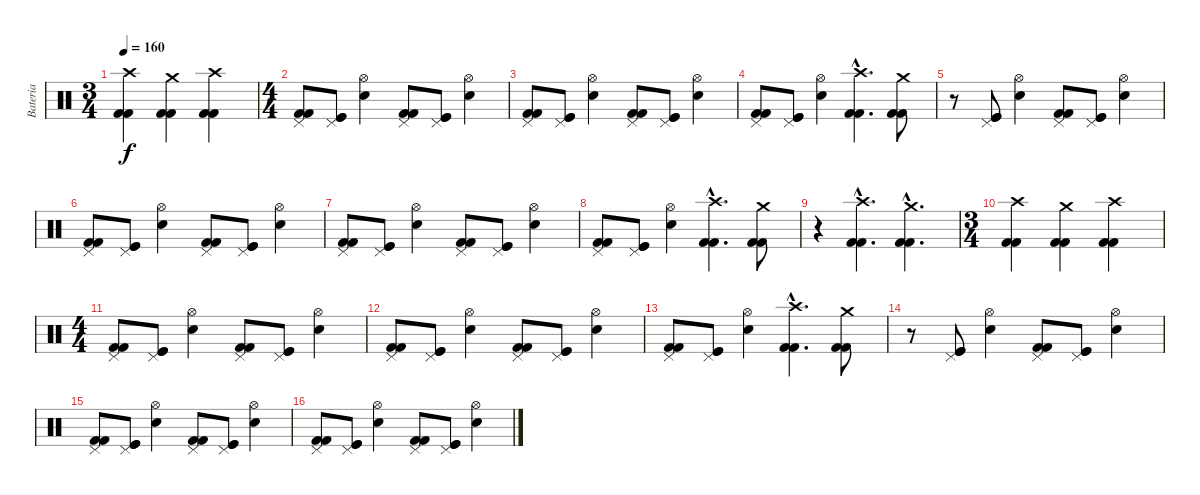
\track ("Bateria" "Bateria") {instrument percussion}
\staff {score}
\articulation defaults
\ts (3 4)
\tempo 160
\clef neutral
\ks c
("Kick (hit) 2" "Kick (hit) 2" "Crash high (hit)").4{dy f} ("Kick (hit) 2" "Kick (hit) 2" "Crash medium (hit)").4 ("Kick (hit) 2" "Kick (hit) 2" "Crash high (hit)").4 |
\ts (4 4)
("Kick (hit) 2" "Kick (hit) 2" "Pedal Hi-Hat (hit)").8 ("Kick (hit)" "Kick (hit)" "Pedal Hi-Hat (hit)").8 ("Snare (hit) 2" "Hi-Hat (open)").4 ("Kick (hit) 2" "Kick (hit) 2" "Pedal Hi-Hat (hit)").8 ("Kick (hit)" "Kick (hit)" "Pedal Hi-Hat (hit)").8 ("Snare (hit) 2" "Hi-Hat (open)").4 |
("Kick (hit) 2" "Kick (hit) 2" "Pedal Hi-Hat (hit)").8 ("Kick (hit)" "Kick (hit)" "Pedal Hi-Hat (hit)").8 ("Snare (hit) 2" "Hi-Hat (open)").4 ("Kick (hit) 2" "Kick (hit) 2" "Pedal Hi-Hat (hit)").8 ("Kick (hit)" "Kick (hit)" "Pedal Hi-Hat (hit)").8 ("Snare (hit) 2" "Hi-Hat (open)").4 |
("Kick (hit) 2" "Kick (hit) 2" "Pedal Hi-Hat (hit)").8 ("Kick (hit)" "Kick (hit)" "Pedal Hi-Hat (hit)").8 ("Snare (hit) 2" "Hi-Hat (open)").4 ("Kick (hit) 2"{hac} "Kick (hit) 2"{hac} "Crash high (hit)"{hac}).4{d} ("Kick (hit) 2" "Kick (hit) 2" "Crash medium (hit)").8 |
r.8 ("Kick (hit)" "Kick (hit)" "Pedal Hi-Hat (hit)").8 ("Snare (hit) 2" "Hi-Hat (open)").4 ("Kick (hit) 2" "Kick (hit) 2" "Pedal Hi-Hat (hit)").8 ("Kick (hit)" "Kick (hit)" "Pedal Hi-Hat (hit)").8 ("Snare (hit) 2" "Hi-Hat (open)").4 |
("Kick (hit) 2" "Kick (hit) 2" "Pedal Hi-Hat (hit)").8 ("Kick (hit)" "Kick (hit)" "Pedal Hi-Hat (hit)").8 ("Snare (hit) 2" "Hi-Hat (open)").4 ("Kick (hit) 2" "Kick (hit) 2" "Pedal Hi-Hat (hit)").8 ("Kick (hit)" "Kick (hit)" "Pedal Hi-Hat (hit)").8 ("Snare (hit) 2" "Hi-Hat (open)").4 |
("Kick (hit) 2" "Kick (hit) 2" "Pedal Hi-Hat (hit)").8 ("Kick (hit)" "Kick (hit)" "Pedal Hi-Hat (hit)").8 ("Snare (hit) 2" "Hi-Hat (open)").4 ("Kick (hit) 2" "Kick (hit) 2" "Pedal Hi-Hat (hit)").8 ("Kick (hit)" "Kick (hit)" "Pedal Hi-Hat (hit)").8 ("Snare (hit) 2" "Hi-Hat (open)").4 |
("Kick (hit) 2" "Kick (hit) 2" "Pedal Hi-Hat (hit)").8 ("Kick (hit)" "Kick (hit)" "Pedal Hi-Hat (hit)").8 ("Snare (hit) 2" "Hi-Hat (open)").4 ("Kick (hit) 2"{hac} "Kick (hit) 2"{hac} "Crash high (hit)"{hac}).4{d} ("Kick (hit) 2" "Kick (hit) 2" "Crash medium (hit)").8 |
r.4 ("Kick (hit) 2"{hac} "Kick (hit) 2"{hac} "Crash high (hit)"{hac}).4{d} ("Kick (hit) 2"{hac} "Kick (hit) 2"{hac} "Crash medium (hit)"{hac}).4{d} |
\ts (3 4)
("Kick (hit) 2" "Kick (hit) 2" "Crash high (hit)").4 ("Kick (hit) 2" "Kick (hit) 2" "Crash medium (hit)").4 ("Kick (hit) 2" "Kick (hit) 2" "Crash high (hit)").4 |
\ts (4 4)
("Kick (hit) 2" "Kick (hit) 2" "Pedal Hi-Hat (hit)").8 ("Kick (hit)" "Kick (hit)" "Pedal Hi-Hat (hit)").8 ("Snare (hit) 2" "Hi-Hat (open)").4 ("Kick (hit) 2" "Kick (hit) 2" "Pedal Hi-Hat (hit)").8 ("Kick (hit)" "Kick (hit)" "Pedal Hi-Hat (hit)").8 ("Snare (hit) 2" "Hi-Hat (open)").4 |
("Kick (hit) 2" "Kick (hit) 2" "Pedal Hi-Hat (hit)").8 ("Kick (hit)" "Kick (hit)" "Pedal Hi-Hat (hit)").8 ("Snare (hit) 2" "Hi-Hat (open)").4 ("Kick (hit) 2" "Kick (hit) 2" "Pedal Hi-Hat (hit)").8 ("Kick (hit)" "Kick (hit)" "Pedal Hi-Hat (hit)").8 ("Snare (hit) 2" "Hi-Hat (open)").4 |
("Kick (hit) 2" "Kick (hit) 2" "Pedal Hi-Hat (hit)").8 ("Kick (hit)" "Kick (hit)" "Pedal Hi-Hat (hit)").8 ("Snare (hit) 2" "Hi-Hat (open)").4 ("Kick (hit) 2"{hac} "Kick (hit) 2"{hac} "Crash high (hit)"{hac}).4{d} ("Kick (hit) 2" "Kick (hit) 2" "Crash medium (hit)").8 |
r.8 ("Kick (hit)" "Kick (hit)" "Pedal Hi-Hat (hit)").8 ("Snare (hit) 2" "Hi-Hat (open)").4 ("Kick (hit) 2" "Kick (hit) 2" "Pedal Hi-Hat (hit)").8 ("Kick (hit)" "Kick (hit)" "Pedal Hi-Hat (hit)").8 ("Snare (hit) 2" "Hi-Hat (open)").4 |
("Kick (hit) 2" "Kick (hit) 2" "Pedal Hi-Hat (hit)").8 ("Kick (hit)" "Kick (hit)" "Pedal Hi-Hat (hit)").8 ("Snare (hit) 2" "Hi-Hat (open)").4 ("Kick (hit) 2" "Kick (hit) 2" "Pedal Hi-Hat (hit)").8 ("Kick (hit)" "Kick (hit)" "Pedal Hi-Hat (hit)").8 ("Snare (hit) 2" "Hi-Hat (open)").4 |
("Kick (hit) 2" "Kick (hit) 2" "Pedal Hi-Hat (hit)").8 ("Kick (hit)" "Kick (hit)" "Pedal Hi-Hat (hit)").8 ("Snare (hit) 2" "Hi-Hat (open)").4 ("Kick (hit) 2" "Kick (hit) 2" "Pedal Hi-Hat (hit)").8 ("Kick (hit)" "Kick (hit)" "Pedal Hi-Hat (hit)").8 ("Snare (hit) 2" "Hi-Hat (open)").4
